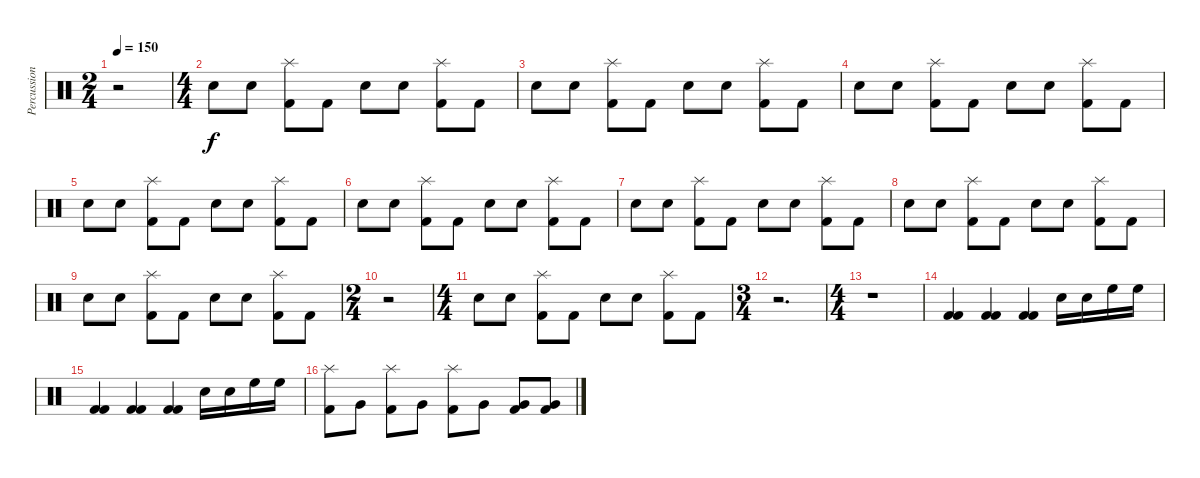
\track ("Percussion" "Percussion") {instrument percussion}
\staff {score}
\articulation defaults
\ts (2 4)
\tempo 150
\clef neutral
\ks c
r.2{dy f} |
\ts (4 4)
"Snare (hit) 2".8 "Snare (hit) 2".8 ("Splash (hit)" "Kick (hit) 2").8 "Kick (hit) 2".8 "Snare (hit) 2".8 "Snare (hit) 2".8 ("Splash (hit)" "Kick (hit) 2").8 "Kick (hit) 2".8 |
"Snare (hit) 2".8 "Snare (hit) 2".8 ("Splash (hit)" "Kick (hit) 2").8 "Kick (hit) 2".8 "Snare (hit) 2".8 "Snare (hit) 2".8 ("Splash (hit)" "Kick (hit) 2").8 "Kick (hit) 2".8 |
"Snare (hit) 2".8 "Snare (hit) 2".8 ("Splash (hit)" "Kick (hit) 2").8 "Kick (hit) 2".8 "Snare (hit) 2".8 "Snare (hit) 2".8 ("Splash (hit)" "Kick (hit) 2").8 "Kick (hit) 2".8 |
"Snare (hit) 2".8 "Snare (hit) 2".8 ("Splash (hit)" "Kick (hit) 2").8 "Kick (hit) 2".8 "Snare (hit) 2".8 "Snare (hit) 2".8 ("Splash (hit)" "Kick (hit) 2").8 "Kick (hit) 2".8 |
"Snare (hit) 2".8 "Snare (hit) 2".8 ("Splash (hit)" "Kick (hit) 2").8 "Kick (hit) 2".8 "Snare (hit) 2".8 "Snare (hit) 2".8 ("Splash (hit)" "Kick (hit) 2").8 "Kick (hit) 2".8 |
"Snare (hit) 2".8 "Snare (hit) 2".8 ("Splash (hit)" "Kick (hit) 2").8 "Kick (hit) 2".8 "Snare (hit) 2".8 "Snare (hit) 2".8 ("Splash (hit)" "Kick (hit) 2").8 "Kick (hit) 2".8 |
"Snare (hit) 2".8 "Snare (hit) 2".8 ("Splash (hit)" "Kick (hit) 2").8 "Kick (hit) 2".8 "Snare (hit) 2".8 "Snare (hit) 2".8 ("Splash (hit)" "Kick (hit) 2").8 "Kick (hit) 2".8 |
"Snare (hit) 2".8 "Snare (hit) 2".8 ("Splash (hit)" "Kick (hit) 2").8 "Kick (hit) 2".8 "Snare (hit) 2".8 "Snare (hit) 2".8 ("Splash (hit)" "Kick (hit) 2").8 "Kick (hit) 2".8 |
\ts (2 4)
r.2 |
\ts (4 4)
"Snare (hit) 2".8 "Snare (hit) 2".8 ("Splash (hit)" "Kick (hit) 2").8 "Kick (hit) 2".8 "Snare (hit) 2".8 "Snare (hit) 2".8 ("Splash (hit)" "Kick (hit) 2").8 "Kick (hit) 2".8 |
\ts (3 4)
r.2{d} |
\ts (4 4)
r.1 |
("Kick (hit) 2" "Kick (hit) 2").4 ("Kick (hit) 2" "Kick (hit) 2").4 ("Kick (hit) 2" "Kick (hit) 2").4 "Snare (hit) 2".16 "Snare (hit) 2".16 "High Floor Tom (hit)".16 "High Floor Tom (hit)".16 |
("Kick (hit) 2" "Kick (hit) 2").4 ("Kick (hit) 2" "Kick (hit) 2").4 ("Kick (hit) 2" "Kick (hit) 2").4 "Snare (hit) 2".16 "Snare (hit) 2".16 "High Floor Tom (hit)".16 "High Floor Tom (hit)".16 |
("Splash (hit)" "Kick (hit) 2").8 "Very Low Tom (hit)".8 ("Splash (hit)" "Kick (hit) 2").8 "Very Low Tom (hit)".8 ("Splash (hit)" "Kick (hit) 2").8 "Very Low Tom (hit)".8 ("Very Low Tom (hit)" "Kick (hit) 2").8 ("Kick (hit) 2" "Very Low Tom (hit)").8
